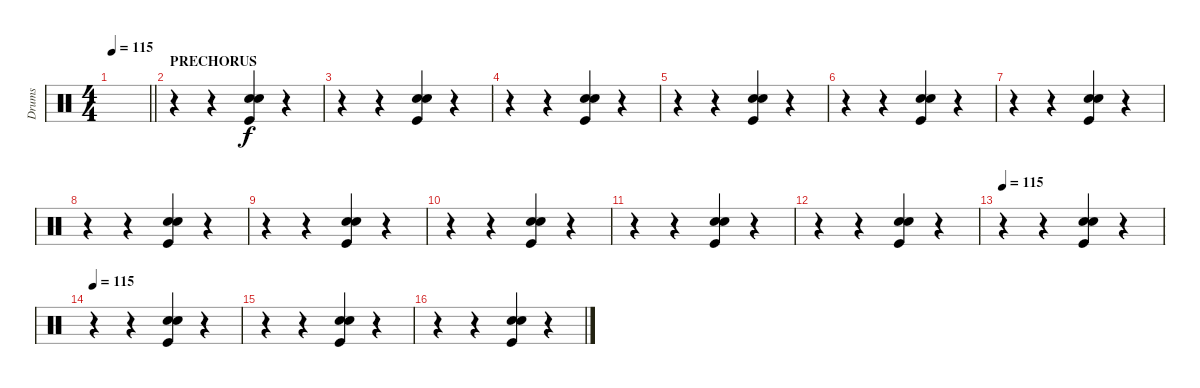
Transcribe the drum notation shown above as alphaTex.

\track ("Drums" "Drums") {instrument percussion}
\staff {score}
\articulation defaults
\ts (4 4)
\tempo 115
\clef neutral
\barLineRight lightlight
\ks c
|
\section ("" "PRECHORUS")
r.4 r.4 ("Hand Clap (hit)" "Electric Snare (hit)" "Kick (hit)").4{dy f} r.4 |
r.4 r.4 ("Hand Clap (hit)" "Electric Snare (hit)" "Kick (hit)").4 r.4 |
r.4 r.4 ("Hand Clap (hit)" "Electric Snare (hit)" "Kick (hit)").4 r.4 |
r.4 r.4 ("Hand Clap (hit)" "Electric Snare (hit)" "Kick (hit)").4 r.4 |
r.4 r.4 ("Hand Clap (hit)" "Electric Snare (hit)" "Kick (hit)").4 r.4 |
r.4 r.4 ("Hand Clap (hit)" "Electric Snare (hit)" "Kick (hit)").4 r.4 |
r.4 r.4 ("Hand Clap (hit)" "Electric Snare (hit)" "Kick (hit)").4 r.4 |
r.4 r.4 ("Hand Clap (hit)" "Electric Snare (hit)" "Kick (hit)").4 r.4 |
r.4 r.4 ("Hand Clap (hit)" "Electric Snare (hit)" "Kick (hit)").4 r.4 |
r.4 r.4 ("Hand Clap (hit)" "Electric Snare (hit)" "Kick (hit)").4 r.4 |
r.4 r.4 ("Hand Clap (hit)" "Electric Snare (hit)" "Kick (hit)").4 r.4 |
\tempo 115
r.4 r.4 ("Hand Clap (hit)" "Electric Snare (hit)" "Kick (hit)").4 r.4 |
\tempo 115
r.4 r.4 ("Hand Clap (hit)" "Electric Snare (hit)" "Kick (hit)").4 r.4 |
r.4 r.4 ("Hand Clap (hit)" "Electric Snare (hit)" "Kick (hit)").4 r.4 |
r.4 r.4 ("Hand Clap (hit)" "Electric Snare (hit)" "Kick (hit)").4 r.4
